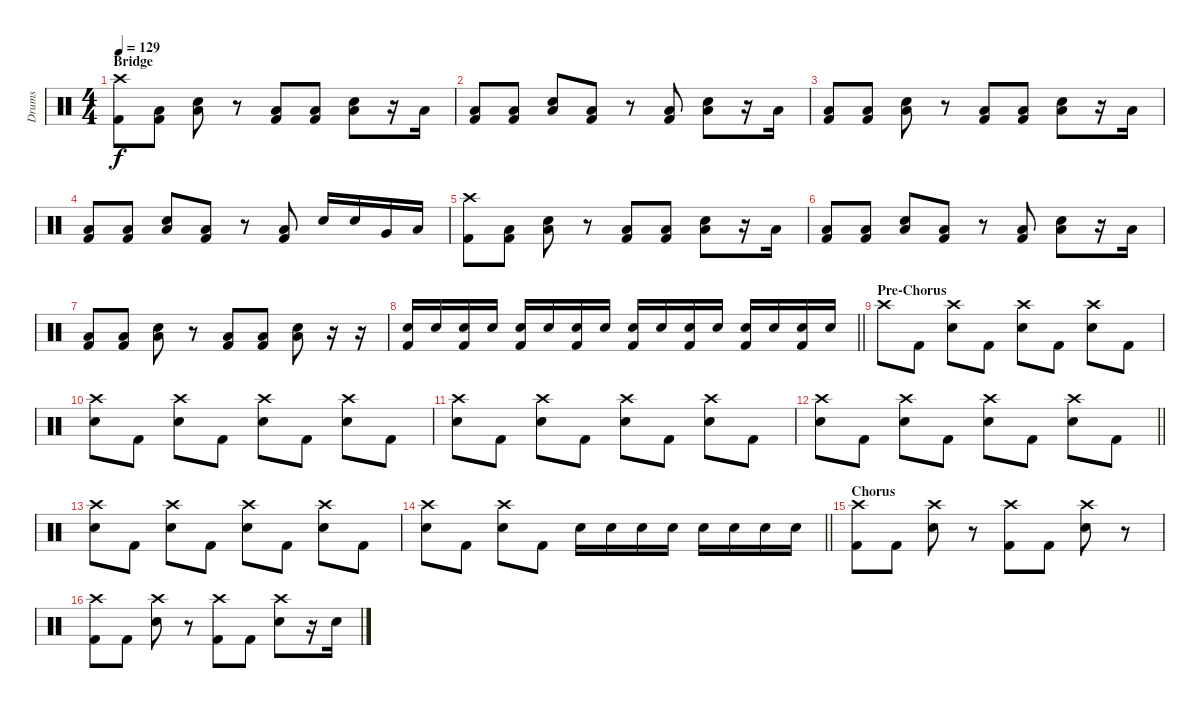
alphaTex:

\track ("Drums" "Drums") {instrument percussion}
\staff {score}
\articulation defaults
\ts (4 4)
\section ("" "Bridge")
\tempo 129
\clef neutral
\ks c
("Crash high (hit)" "Kick (hit) 2").8{dy f} ("Low Floor Tom (hit)" "Kick (hit) 2").8 ("Low Floor Tom (hit)" "Electric Snare (hit)").8 r.8 ("Low Floor Tom (hit)" "Kick (hit) 2").8 ("Low Floor Tom (hit)" "Kick (hit) 2").8 ("Low Floor Tom (hit)" "Electric Snare (hit)").8 r.16 "Low Tom (hit)".16 |
("Low Floor Tom (hit)" "Kick (hit) 2").8 ("Low Floor Tom (hit)" "Kick (hit) 2").8 ("Low Floor Tom (hit)" "Electric Snare (hit)").8 ("Low Floor Tom (hit)" "Kick (hit) 2").8 r.8 ("Low Floor Tom (hit)" "Kick (hit) 2").8 ("Low Floor Tom (hit)" "Electric Snare (hit)").8 r.16 "Low Tom (hit)".16 |
("Low Floor Tom (hit)" "Kick (hit) 2").8 ("Low Floor Tom (hit)" "Kick (hit) 2").8 ("Low Floor Tom (hit)" "Electric Snare (hit)").8 r.8 ("Low Floor Tom (hit)" "Kick (hit) 2").8 ("Low Floor Tom (hit)" "Kick (hit) 2").8 ("Low Floor Tom (hit)" "Electric Snare (hit)").8 r.16 "Low Tom (hit)".16 |
("Low Floor Tom (hit)" "Kick (hit) 2").8 ("Low Floor Tom (hit)" "Kick (hit) 2").8 ("Low Floor Tom (hit)" "Electric Snare (hit)").8 ("Low Floor Tom (hit)" "Kick (hit) 2").8 r.8 ("Low Floor Tom (hit)" "Kick (hit) 2").8 "Electric Snare (hit)".16 "Electric Snare (hit)".16 "Very Low Tom (hit)".16 "Low Tom (hit)".16 |
("Crash high (hit)" "Kick (hit) 2").8 ("Low Floor Tom (hit)" "Kick (hit) 2").8 ("Low Floor Tom (hit)" "Electric Snare (hit)").8 r.8 ("Low Floor Tom (hit)" "Kick (hit) 2").8 ("Low Floor Tom (hit)" "Kick (hit) 2").8 ("Low Floor Tom (hit)" "Electric Snare (hit)").8 r.16 "Low Tom (hit)".16 |
("Low Floor Tom (hit)" "Kick (hit) 2").8 ("Low Floor Tom (hit)" "Kick (hit) 2").8 ("Low Floor Tom (hit)" "Electric Snare (hit)").8 ("Low Floor Tom (hit)" "Kick (hit) 2").8 r.8 ("Low Floor Tom (hit)" "Kick (hit) 2").8 ("Low Floor Tom (hit)" "Electric Snare (hit)").8 r.16 "Low Tom (hit)".16 |
("Low Floor Tom (hit)" "Kick (hit) 2").8 ("Low Floor Tom (hit)" "Kick (hit) 2").8 ("Low Floor Tom (hit)" "Electric Snare (hit)").8 r.8 ("Low Floor Tom (hit)" "Kick (hit) 2").8 ("Low Floor Tom (hit)" "Kick (hit) 2").8 ("Low Floor Tom (hit)" "Electric Snare (hit)").8 r.16 r.16 |
\barLineRight lightlight
("Electric Snare (hit)" "Kick (hit) 2").16 "Electric Snare (hit)".16 ("Electric Snare (hit)" "Kick (hit) 2").16 "Electric Snare (hit)".16 ("Electric Snare (hit)" "Kick (hit) 2").16 "Electric Snare (hit)".16 ("Electric Snare (hit)" "Kick (hit) 2").16 "Electric Snare (hit)".16 ("Electric Snare (hit)" "Kick (hit) 2").16 "Electric Snare (hit)".16 ("Electric Snare (hit)" "Kick (hit) 2").16 "Electric Snare (hit)".16 ("Electric Snare (hit)" "Kick (hit) 2").16 "Electric Snare (hit)".16 ("Electric Snare (hit)" "Kick (hit) 2").16 "Electric Snare (hit)".16 |
\section ("" "Pre-Chorus")
"Crash high (hit)".8 "Kick (hit) 2".8 ("Crash high (hit)" "Electric Snare (hit)").8 "Kick (hit) 2".8 ("Crash high (hit)" "Electric Snare (hit)").8 "Kick (hit) 2".8 ("Crash high (hit)" "Electric Snare (hit)").8 "Kick (hit) 2".8 |
("Crash high (hit)" "Electric Snare (hit)").8 "Kick (hit) 2".8 ("Crash high (hit)" "Electric Snare (hit)").8 "Kick (hit) 2".8 ("Crash high (hit)" "Electric Snare (hit)").8 "Kick (hit) 2".8 ("Crash high (hit)" "Electric Snare (hit)").8 "Kick (hit) 2".8 |
("Crash high (hit)" "Electric Snare (hit)").8 "Kick (hit) 2".8 ("Crash high (hit)" "Electric Snare (hit)").8 "Kick (hit) 2".8 ("Crash high (hit)" "Electric Snare (hit)").8 "Kick (hit) 2".8 ("Crash high (hit)" "Electric Snare (hit)").8 "Kick (hit) 2".8 |
\barLineRight lightlight
("Crash high (hit)" "Electric Snare (hit)").8 "Kick (hit) 2".8 ("Crash high (hit)" "Electric Snare (hit)").8 "Kick (hit) 2".8 ("Crash high (hit)" "Electric Snare (hit)").8 "Kick (hit) 2".8 ("Crash high (hit)" "Electric Snare (hit)").8 "Kick (hit) 2".8 |
("Crash high (hit)" "Electric Snare (hit)").8 "Kick (hit) 2".8 ("Crash high (hit)" "Electric Snare (hit)").8 "Kick (hit) 2".8 ("Crash high (hit)" "Electric Snare (hit)").8 "Kick (hit) 2".8 ("Crash high (hit)" "Electric Snare (hit)").8 "Kick (hit) 2".8 |
\barLineRight lightlight
("Crash high (hit)" "Electric Snare (hit)").8 "Kick (hit) 2".8 ("Crash high (hit)" "Electric Snare (hit)").8 "Kick (hit) 2".8 "Electric Snare (hit)".16 "Electric Snare (hit)".16 "Electric Snare (hit)".16 "Electric Snare (hit)".16 "Electric Snare (hit)".16 "Electric Snare (hit)".16 "Electric Snare (hit)".16 "Electric Snare (hit)".16 |
\section ("" "Chorus")
("Crash high (hit)" "Kick (hit) 2").8 "Kick (hit) 2".8 ("Crash high (hit)" "Electric Snare (hit)").8 r.8 ("Crash high (hit)" "Kick (hit) 2").8 "Kick (hit) 2".8 ("Crash high (hit)" "Electric Snare (hit)").8 r.8 |
("Crash high (hit)" "Kick (hit) 2").8 "Kick (hit) 2".8 ("Crash high (hit)" "Electric Snare (hit)").8 r.8 ("Crash high (hit)" "Kick (hit) 2").8 "Kick (hit) 2".8 ("Crash high (hit)" "Electric Snare (hit)").8 r.16 "Electric Snare (hit)".16
